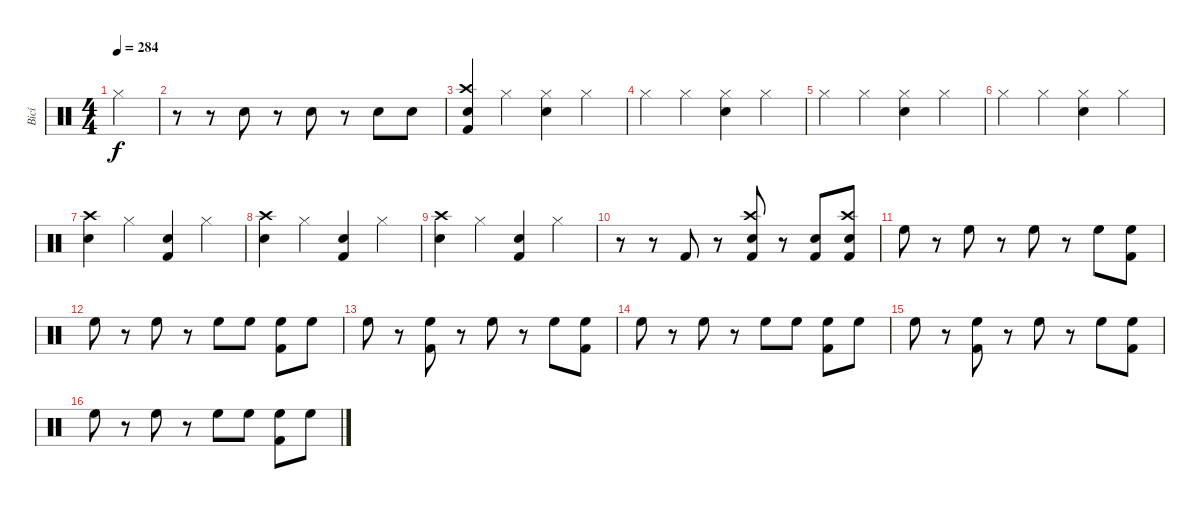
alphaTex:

\track ("Bicí" "Bicí") {instrument percussion}
\staff {score}
\articulation defaults
\ts (4 4)
\tempo 284
\clef neutral
\ks c "Hi-Hat (closed)".4{dy f}
|
r.8 r.8 "Electric Snare (hit)".8 r.8 "Electric Snare (hit)".8 r.8 "Electric Snare (hit)".8 "Electric Snare (hit)".8 |
("Crash high (hit)" "Electric Snare (hit)" "Kick (hit) 2").4 "Hi-Hat (closed)".4 ("Hi-Hat (closed)" "Electric Snare (hit)").4 "Hi-Hat (closed)".4 |
"Hi-Hat (closed)".4 "Hi-Hat (closed)".4 ("Hi-Hat (closed)" "Electric Snare (hit)").4 "Hi-Hat (closed)".4 |
"Hi-Hat (closed)".4 "Hi-Hat (closed)".4 ("Hi-Hat (closed)" "Electric Snare (hit)").4 "Hi-Hat (closed)".4 |
"Hi-Hat (closed)".4 "Hi-Hat (closed)".4 ("Hi-Hat (closed)" "Electric Snare (hit)").4 "Hi-Hat (closed)".4 |
("Crash high (hit)" "Electric Snare (hit)").4 "Hi-Hat (closed)".4 ("Electric Snare (hit)" "Kick (hit) 2").4 "Hi-Hat (closed)".4 |
("Crash high (hit)" "Electric Snare (hit)").4 "Hi-Hat (closed)".4 ("Electric Snare (hit)" "Kick (hit) 2").4 "Hi-Hat (closed)".4 |
("Crash high (hit)" "Electric Snare (hit)").4 "Hi-Hat (closed)".4 ("Electric Snare (hit)" "Kick (hit) 2").4 "Hi-Hat (closed)".4 |
r.8 r.8 "Kick (hit) 2".8 r.8 ("Crash high (hit)" "Electric Snare (hit)" "Kick (hit) 2").8 r.8 ("Electric Snare (hit)" "Kick (hit) 2").8 ("Crash high (hit)" "Electric Snare (hit)" "Kick (hit) 2").8 |
"High Floor Tom (hit)".8 r.8 "High Floor Tom (hit)".8 r.8 "High Floor Tom (hit)".8 r.8 "High Floor Tom (hit)".8 ("Kick (hit) 2" "High Floor Tom (hit)").8 |
"High Floor Tom (hit)".8 r.8 "High Floor Tom (hit)".8 r.8 "High Floor Tom (hit)".8 "High Floor Tom (hit)".8 ("Kick (hit) 2" "High Floor Tom (hit)").8 "High Floor Tom (hit)".8 |
"High Floor Tom (hit)".8 r.8 ("Kick (hit) 2" "High Floor Tom (hit)").8 r.8 "High Floor Tom (hit)".8 r.8 "High Floor Tom (hit)".8 ("Kick (hit) 2" "High Floor Tom (hit)").8 |
"High Floor Tom (hit)".8 r.8 "High Floor Tom (hit)".8 r.8 "High Floor Tom (hit)".8 "High Floor Tom (hit)".8 ("Kick (hit) 2" "High Floor Tom (hit)").8 "High Floor Tom (hit)".8 |
"High Floor Tom (hit)".8 r.8 ("Kick (hit) 2" "High Floor Tom (hit)").8 r.8 "High Floor Tom (hit)".8 r.8 "High Floor Tom (hit)".8 ("Kick (hit) 2" "High Floor Tom (hit)").8 |
"High Floor Tom (hit)".8 r.8 "High Floor Tom (hit)".8 r.8 "High Floor Tom (hit)".8 "High Floor Tom (hit)".8 ("Kick (hit) 2" "High Floor Tom (hit)").8 "High Floor Tom (hit)".8
